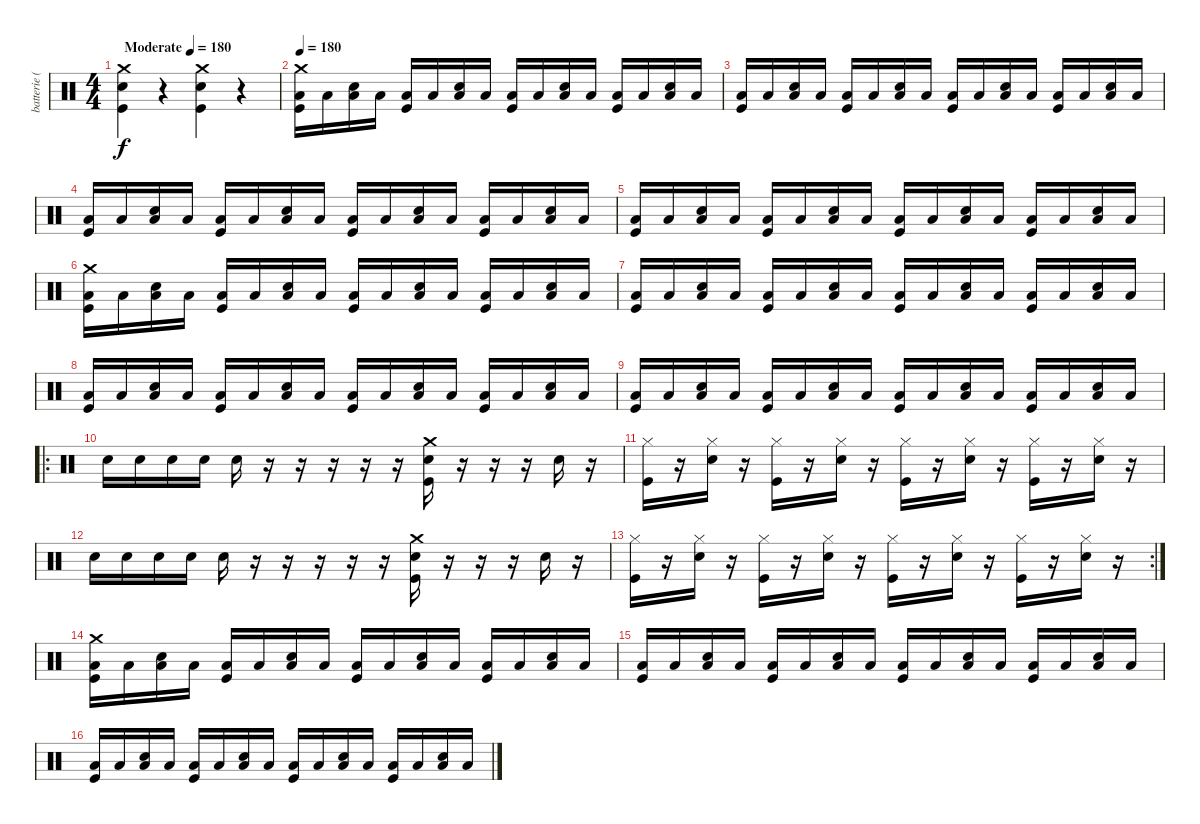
\track ("batterie ( Jeff Nelson ) " "batterie (") {instrument percussion}
\staff {score}
\articulation defaults
\ts (4 4)
\tempo (180 "Moderate")
\tempo 140
\tempo (180 "Moderate")
\clef neutral
\ks c
("Crash medium (hit)" "Snare (hit) 2" "Kick (hit)").4{dy f} r.4 ("Crash medium (hit)" "Snare (hit) 2" "Kick (hit)").4 r.4 |
\tempo 180
("Crash medium (hit)" "Low Floor Tom (hit)" "Kick (hit)").16 "Low Floor Tom (hit)".16 ("Low Floor Tom (hit)" "Snare (hit) 2").16 "Low Floor Tom (hit)".16 ("Low Floor Tom (hit)" "Kick (hit)").16 "Low Floor Tom (hit)".16 ("Low Floor Tom (hit)" "Snare (hit) 2").16 "Low Floor Tom (hit)".16 ("Low Floor Tom (hit)" "Kick (hit)").16 "Low Floor Tom (hit)".16 ("Low Floor Tom (hit)" "Snare (hit) 2").16 "Low Floor Tom (hit)".16 ("Low Floor Tom (hit)" "Kick (hit)").16 "Low Floor Tom (hit)".16 ("Low Floor Tom (hit)" "Snare (hit) 2").16 "Low Floor Tom (hit)".16 |
("Low Floor Tom (hit)" "Kick (hit)").16 "Low Floor Tom (hit)".16 ("Low Floor Tom (hit)" "Snare (hit) 2").16 "Low Floor Tom (hit)".16 ("Low Floor Tom (hit)" "Kick (hit)").16 "Low Floor Tom (hit)".16 ("Low Floor Tom (hit)" "Snare (hit) 2").16 "Low Floor Tom (hit)".16 ("Low Floor Tom (hit)" "Kick (hit)").16 "Low Floor Tom (hit)".16 ("Low Floor Tom (hit)" "Snare (hit) 2").16 "Low Floor Tom (hit)".16 ("Low Floor Tom (hit)" "Kick (hit)").16 "Low Floor Tom (hit)".16 ("Low Floor Tom (hit)" "Snare (hit) 2").16 "Low Floor Tom (hit)".16 |
("Low Floor Tom (hit)" "Kick (hit)").16 "Low Floor Tom (hit)".16 ("Low Floor Tom (hit)" "Snare (hit) 2").16 "Low Floor Tom (hit)".16 ("Low Floor Tom (hit)" "Kick (hit)").16 "Low Floor Tom (hit)".16 ("Low Floor Tom (hit)" "Snare (hit) 2").16 "Low Floor Tom (hit)".16 ("Low Floor Tom (hit)" "Kick (hit)").16 "Low Floor Tom (hit)".16 ("Low Floor Tom (hit)" "Snare (hit) 2").16 "Low Floor Tom (hit)".16 ("Low Floor Tom (hit)" "Kick (hit)").16 "Low Floor Tom (hit)".16 ("Low Floor Tom (hit)" "Snare (hit) 2").16 "Low Floor Tom (hit)".16 |
("Low Floor Tom (hit)" "Kick (hit)").16 "Low Floor Tom (hit)".16 ("Low Floor Tom (hit)" "Snare (hit) 2").16 "Low Floor Tom (hit)".16 ("Low Floor Tom (hit)" "Kick (hit)").16 "Low Floor Tom (hit)".16 ("Low Floor Tom (hit)" "Snare (hit) 2").16 "Low Floor Tom (hit)".16 ("Low Floor Tom (hit)" "Kick (hit)").16 "Low Floor Tom (hit)".16 ("Low Floor Tom (hit)" "Snare (hit) 2").16 "Low Floor Tom (hit)".16 ("Low Floor Tom (hit)" "Kick (hit)").16 "Low Floor Tom (hit)".16 ("Low Floor Tom (hit)" "Snare (hit) 2").16 "Low Floor Tom (hit)".16 |
("Crash medium (hit)" "Low Floor Tom (hit)" "Kick (hit)").16 "Low Floor Tom (hit)".16 ("Low Floor Tom (hit)" "Snare (hit) 2").16 "Low Floor Tom (hit)".16 ("Low Floor Tom (hit)" "Kick (hit)").16 "Low Floor Tom (hit)".16 ("Low Floor Tom (hit)" "Snare (hit) 2").16 "Low Floor Tom (hit)".16 ("Low Floor Tom (hit)" "Kick (hit)").16 "Low Floor Tom (hit)".16 ("Low Floor Tom (hit)" "Snare (hit) 2").16 "Low Floor Tom (hit)".16 ("Low Floor Tom (hit)" "Kick (hit)").16 "Low Floor Tom (hit)".16 ("Low Floor Tom (hit)" "Snare (hit) 2").16 "Low Floor Tom (hit)".16 |
("Low Floor Tom (hit)" "Kick (hit)").16 "Low Floor Tom (hit)".16 ("Low Floor Tom (hit)" "Snare (hit) 2").16 "Low Floor Tom (hit)".16 ("Low Floor Tom (hit)" "Kick (hit)").16 "Low Floor Tom (hit)".16 ("Low Floor Tom (hit)" "Snare (hit) 2").16 "Low Floor Tom (hit)".16 ("Low Floor Tom (hit)" "Kick (hit)").16 "Low Floor Tom (hit)".16 ("Low Floor Tom (hit)" "Snare (hit) 2").16 "Low Floor Tom (hit)".16 ("Low Floor Tom (hit)" "Kick (hit)").16 "Low Floor Tom (hit)".16 ("Low Floor Tom (hit)" "Snare (hit) 2").16 "Low Floor Tom (hit)".16 |
("Low Floor Tom (hit)" "Kick (hit)").16 "Low Floor Tom (hit)".16 ("Low Floor Tom (hit)" "Snare (hit) 2").16 "Low Floor Tom (hit)".16 ("Low Floor Tom (hit)" "Kick (hit)").16 "Low Floor Tom (hit)".16 ("Low Floor Tom (hit)" "Snare (hit) 2").16 "Low Floor Tom (hit)".16 ("Low Floor Tom (hit)" "Kick (hit)").16 "Low Floor Tom (hit)".16 ("Low Floor Tom (hit)" "Snare (hit) 2").16 "Low Floor Tom (hit)".16 ("Low Floor Tom (hit)" "Kick (hit)").16 "Low Floor Tom (hit)".16 ("Low Floor Tom (hit)" "Snare (hit) 2").16 "Low Floor Tom (hit)".16 |
("Low Floor Tom (hit)" "Kick (hit)").16 "Low Floor Tom (hit)".16 ("Low Floor Tom (hit)" "Snare (hit) 2").16 "Low Floor Tom (hit)".16 ("Low Floor Tom (hit)" "Kick (hit)").16 "Low Floor Tom (hit)".16 ("Low Floor Tom (hit)" "Snare (hit) 2").16 "Low Floor Tom (hit)".16 ("Low Floor Tom (hit)" "Kick (hit)").16 "Low Floor Tom (hit)".16 ("Low Floor Tom (hit)" "Snare (hit) 2").16 "Low Floor Tom (hit)".16 ("Low Floor Tom (hit)" "Kick (hit)").16 "Low Floor Tom (hit)".16 ("Low Floor Tom (hit)" "Snare (hit) 2").16 "Low Floor Tom (hit)".16 |
\ro "Snare (hit) 2".16 "Snare (hit) 2".16 "Snare (hit) 2".16 "Snare (hit) 2".16 "Snare (hit) 2".16
r.16 r.16 r.16 r.16 r.16 ("Crash medium (hit)" "Snare (hit) 2" "Kick (hit)").16 r.16 r.16 r.16 "Snare (hit) 2".16 r.16 |
("Hi-Hat (closed)" "Kick (hit)").16 r.16 ("Hi-Hat (closed)" "Snare (hit) 2").16 r.16 ("Hi-Hat (closed)" "Kick (hit)").16 r.16 ("Hi-Hat (closed)" "Snare (hit) 2").16 r.16 ("Hi-Hat (closed)" "Kick (hit)").16 r.16 ("Hi-Hat (closed)" "Snare (hit) 2").16 r.16 ("Hi-Hat (closed)" "Kick (hit)").16 r.16 ("Hi-Hat (closed)" "Snare (hit) 2").16 r.16 |
"Snare (hit) 2".16 "Snare (hit) 2".16 "Snare (hit) 2".16 "Snare (hit) 2".16 "Snare (hit) 2".16 r.16 r.16 r.16 r.16 r.16 ("Crash medium (hit)" "Snare (hit) 2" "Kick (hit)").16 r.16 r.16 r.16 "Snare (hit) 2".16 r.16 |
\rc 2
("Hi-Hat (closed)" "Kick (hit)").16 r.16 ("Hi-Hat (closed)" "Snare (hit) 2").16 r.16 ("Hi-Hat (closed)" "Kick (hit)").16 r.16 ("Hi-Hat (closed)" "Snare (hit) 2").16 r.16 ("Hi-Hat (closed)" "Kick (hit)").16 r.16 ("Hi-Hat (closed)" "Snare (hit) 2").16 r.16 ("Hi-Hat (closed)" "Kick (hit)").16 r.16 ("Hi-Hat (closed)" "Snare (hit) 2").16 r.16 |
("Crash medium (hit)" "Low Floor Tom (hit)" "Kick (hit)").16 "Low Floor Tom (hit)".16 ("Low Floor Tom (hit)" "Snare (hit) 2").16 "Low Floor Tom (hit)".16 ("Low Floor Tom (hit)" "Kick (hit)").16 "Low Floor Tom (hit)".16 ("Low Floor Tom (hit)" "Snare (hit) 2").16 "Low Floor Tom (hit)".16 ("Low Floor Tom (hit)" "Kick (hit)").16 "Low Floor Tom (hit)".16 ("Low Floor Tom (hit)" "Snare (hit) 2").16 "Low Floor Tom (hit)".16 ("Low Floor Tom (hit)" "Kick (hit)").16 "Low Floor Tom (hit)".16 ("Low Floor Tom (hit)" "Snare (hit) 2").16 "Low Floor Tom (hit)".16 |
("Low Floor Tom (hit)" "Kick (hit)").16 "Low Floor Tom (hit)".16 ("Low Floor Tom (hit)" "Snare (hit) 2").16 "Low Floor Tom (hit)".16 ("Low Floor Tom (hit)" "Kick (hit)").16 "Low Floor Tom (hit)".16 ("Low Floor Tom (hit)" "Snare (hit) 2").16 "Low Floor Tom (hit)".16 ("Low Floor Tom (hit)" "Kick (hit)").16 "Low Floor Tom (hit)".16 ("Low Floor Tom (hit)" "Snare (hit) 2").16 "Low Floor Tom (hit)".16 ("Low Floor Tom (hit)" "Kick (hit)").16 "Low Floor Tom (hit)".16 ("Low Floor Tom (hit)" "Snare (hit) 2").16 "Low Floor Tom (hit)".16 |
("Low Floor Tom (hit)" "Kick (hit)").16 "Low Floor Tom (hit)".16 ("Low Floor Tom (hit)" "Snare (hit) 2").16 "Low Floor Tom (hit)".16 ("Low Floor Tom (hit)" "Kick (hit)").16 "Low Floor Tom (hit)".16 ("Low Floor Tom (hit)" "Snare (hit) 2").16 "Low Floor Tom (hit)".16 ("Low Floor Tom (hit)" "Kick (hit)").16 "Low Floor Tom (hit)".16 ("Low Floor Tom (hit)" "Snare (hit) 2").16 "Low Floor Tom (hit)".16 ("Low Floor Tom (hit)" "Kick (hit)").16 "Low Floor Tom (hit)".16 ("Low Floor Tom (hit)" "Snare (hit) 2").16 "Low Floor Tom (hit)".16
